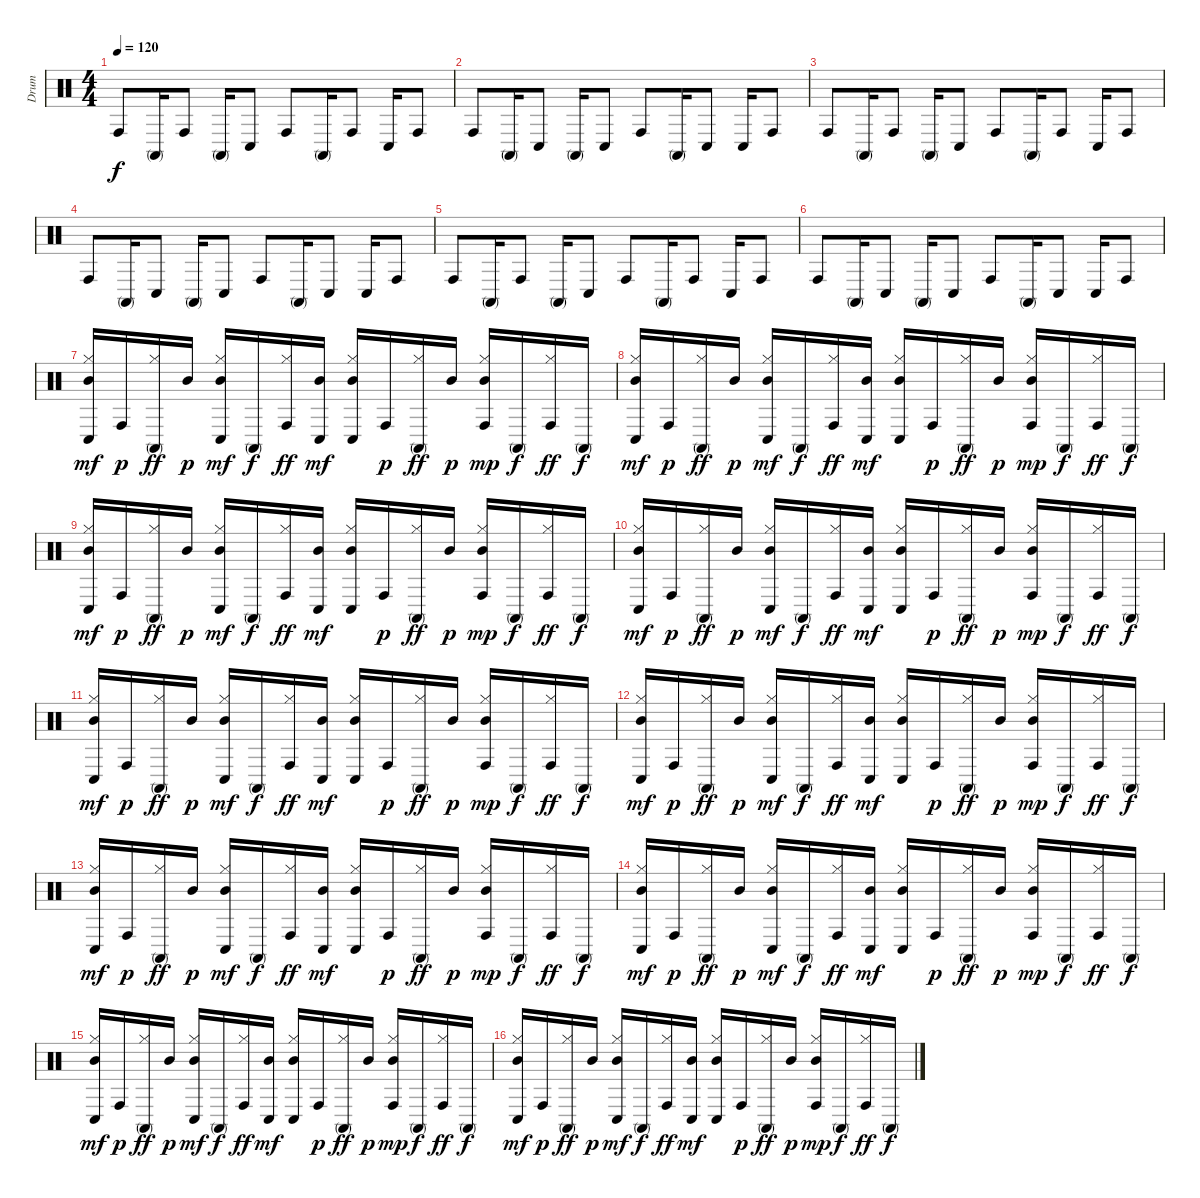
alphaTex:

\track ("Drum" "Drum") {instrument percussion}
\staff {score}
\articulation defaults
\ts (4 4)
\tempo 120
\clef neutral
\ks c "Conga high (hit)".8{dy f} "Conga high (mute)".16 "Conga high (hit)".8 "Conga high (mute)".16 "Conga low (hit)".8 "Conga high (hit)".8 "Conga high (mute)".16 "Conga high (hit)".8 "Conga low (hit)".16 "Conga high (hit)".8
|
"Conga high (hit)".8 "Conga high (mute)".16 "Conga low (hit)".8 "Conga high (mute)".16 "Conga low (hit)".8 "Conga high (hit)".8 "Conga high (mute)".16 "Conga low (hit)".8 "Conga low (hit)".16 "Conga high (hit)".8 |
"Conga high (hit)".8 "Conga high (mute)".16 "Conga high (hit)".8 "Conga high (mute)".16 "Conga low (hit)".8 "Conga high (hit)".8 "Conga high (mute)".16 "Conga high (hit)".8 "Conga low (hit)".16 "Conga high (hit)".8 |
"Conga high (hit)".8 "Conga high (mute)".16 "Conga low (hit)".8 "Conga high (mute)".16 "Conga low (hit)".8 "Conga high (hit)".8 "Conga high (mute)".16 "Conga low (hit)".8 "Conga low (hit)".16 "Conga high (hit)".8 |
"Conga high (hit)".8 "Conga high (mute)".16 "Conga high (hit)".8 "Conga high (mute)".16 "Conga low (hit)".8 "Conga high (hit)".8 "Conga high (mute)".16 "Conga high (hit)".8 "Conga low (hit)".16 "Conga high (hit)".8 |
"Conga high (hit)".8 "Conga high (mute)".16 "Conga low (hit)".8 "Conga high (mute)".16 "Conga low (hit)".8 "Conga high (hit)".8 "Conga high (mute)".16 "Conga low (hit)".8 "Conga low (hit)".16 "Conga high (hit)".8 |
("Mid Tom (hit)" "Hi-Hat (closed)" "Conga low (hit)").16{dy mf} "Conga high (hit)".16{dy p} ("Hi-Hat (closed)" "Conga high (mute)").16{dy ff} "Mid Tom (hit)".16{dy p} ("Mid Tom (hit)" "Hi-Hat (closed)" "Conga low (hit)").16{dy mf} "Conga high (mute)".16{dy f} ("Conga high (hit)" "Hi-Hat (closed)").16{dy ff} ("Mid Tom (hit)" "Conga low (hit)").16{dy mf} ("Mid Tom (hit)" "Hi-Hat (closed)" "Conga low (hit)").16 "Conga high (hit)".16{dy p} ("Hi-Hat (closed)" "Conga high (mute)").16{dy ff} "Mid Tom (hit)".16{dy p} ("Mid Tom (hit)" "Hi-Hat (closed)" "Conga high (hit)").16{dy mp} "Conga high (mute)".16{dy f} ("Conga high (hit)" "Hi-Hat (closed)").16{dy ff} "Conga high (mute)".16{dy f} |
("Mid Tom (hit)" "Hi-Hat (closed)" "Conga low (hit)").16{dy mf} "Conga high (hit)".16{dy p} ("Hi-Hat (closed)" "Conga high (mute)").16{dy ff} "Mid Tom (hit)".16{dy p} ("Mid Tom (hit)" "Hi-Hat (closed)" "Conga low (hit)").16{dy mf} "Conga high (mute)".16{dy f} ("Conga high (hit)" "Hi-Hat (closed)").16{dy ff} ("Mid Tom (hit)" "Conga low (hit)").16{dy mf} ("Mid Tom (hit)" "Hi-Hat (closed)" "Conga low (hit)").16 "Conga high (hit)".16{dy p} ("Hi-Hat (closed)" "Conga high (mute)").16{dy ff} "Mid Tom (hit)".16{dy p} ("Mid Tom (hit)" "Hi-Hat (closed)" "Conga high (hit)").16{dy mp} "Conga high (mute)".16{dy f} ("Conga high (hit)" "Hi-Hat (closed)").16{dy ff} "Conga high (mute)".16{dy f} |
("Mid Tom (hit)" "Hi-Hat (closed)" "Conga low (hit)").16{dy mf} "Conga high (hit)".16{dy p} ("Hi-Hat (closed)" "Conga high (mute)").16{dy ff} "Mid Tom (hit)".16{dy p} ("Mid Tom (hit)" "Hi-Hat (closed)" "Conga low (hit)").16{dy mf} "Conga high (mute)".16{dy f} ("Conga high (hit)" "Hi-Hat (closed)").16{dy ff} ("Mid Tom (hit)" "Conga low (hit)").16{dy mf} ("Mid Tom (hit)" "Hi-Hat (closed)" "Conga low (hit)").16 "Conga high (hit)".16{dy p} ("Hi-Hat (closed)" "Conga high (mute)").16{dy ff} "Mid Tom (hit)".16{dy p} ("Mid Tom (hit)" "Hi-Hat (closed)" "Conga high (hit)").16{dy mp} "Conga high (mute)".16{dy f} ("Conga high (hit)" "Hi-Hat (closed)").16{dy ff} "Conga high (mute)".16{dy f} |
("Mid Tom (hit)" "Hi-Hat (closed)" "Conga low (hit)").16{dy mf} "Conga high (hit)".16{dy p} ("Hi-Hat (closed)" "Conga high (mute)").16{dy ff} "Mid Tom (hit)".16{dy p} ("Mid Tom (hit)" "Hi-Hat (closed)" "Conga low (hit)").16{dy mf} "Conga high (mute)".16{dy f} ("Conga high (hit)" "Hi-Hat (closed)").16{dy ff} ("Mid Tom (hit)" "Conga low (hit)").16{dy mf} ("Mid Tom (hit)" "Hi-Hat (closed)" "Conga low (hit)").16 "Conga high (hit)".16{dy p} ("Hi-Hat (closed)" "Conga high (mute)").16{dy ff} "Mid Tom (hit)".16{dy p} ("Mid Tom (hit)" "Hi-Hat (closed)" "Conga high (hit)").16{dy mp} "Conga high (mute)".16{dy f} ("Conga high (hit)" "Hi-Hat (closed)").16{dy ff} "Conga high (mute)".16{dy f} |
("Mid Tom (hit)" "Hi-Hat (closed)" "Conga low (hit)").16{dy mf} "Conga high (hit)".16{dy p} ("Hi-Hat (closed)" "Conga high (mute)").16{dy ff} "Mid Tom (hit)".16{dy p} ("Mid Tom (hit)" "Hi-Hat (closed)" "Conga low (hit)").16{dy mf} "Conga high (mute)".16{dy f} ("Conga high (hit)" "Hi-Hat (closed)").16{dy ff} ("Mid Tom (hit)" "Conga low (hit)").16{dy mf} ("Mid Tom (hit)" "Hi-Hat (closed)" "Conga low (hit)").16 "Conga high (hit)".16{dy p} ("Hi-Hat (closed)" "Conga high (mute)").16{dy ff} "Mid Tom (hit)".16{dy p} ("Mid Tom (hit)" "Hi-Hat (closed)" "Conga high (hit)").16{dy mp} "Conga high (mute)".16{dy f} ("Conga high (hit)" "Hi-Hat (closed)").16{dy ff} "Conga high (mute)".16{dy f} |
("Mid Tom (hit)" "Hi-Hat (closed)" "Conga low (hit)").16{dy mf} "Conga high (hit)".16{dy p} ("Hi-Hat (closed)" "Conga high (mute)").16{dy ff} "Mid Tom (hit)".16{dy p} ("Mid Tom (hit)" "Hi-Hat (closed)" "Conga low (hit)").16{dy mf} "Conga high (mute)".16{dy f} ("Conga high (hit)" "Hi-Hat (closed)").16{dy ff} ("Mid Tom (hit)" "Conga low (hit)").16{dy mf} ("Mid Tom (hit)" "Hi-Hat (closed)" "Conga low (hit)").16 "Conga high (hit)".16{dy p} ("Hi-Hat (closed)" "Conga high (mute)").16{dy ff} "Mid Tom (hit)".16{dy p} ("Mid Tom (hit)" "Hi-Hat (closed)" "Conga high (hit)").16{dy mp} "Conga high (mute)".16{dy f} ("Conga high (hit)" "Hi-Hat (closed)").16{dy ff} "Conga high (mute)".16{dy f} |
("Mid Tom (hit)" "Hi-Hat (closed)" "Conga low (hit)").16{dy mf} "Conga high (hit)".16{dy p} ("Hi-Hat (closed)" "Conga high (mute)").16{dy ff} "Mid Tom (hit)".16{dy p} ("Mid Tom (hit)" "Hi-Hat (closed)" "Conga low (hit)").16{dy mf} "Conga high (mute)".16{dy f} ("Conga high (hit)" "Hi-Hat (closed)").16{dy ff} ("Mid Tom (hit)" "Conga low (hit)").16{dy mf} ("Mid Tom (hit)" "Hi-Hat (closed)" "Conga low (hit)").16 "Conga high (hit)".16{dy p} ("Hi-Hat (closed)" "Conga high (mute)").16{dy ff} "Mid Tom (hit)".16{dy p} ("Mid Tom (hit)" "Hi-Hat (closed)" "Conga high (hit)").16{dy mp} "Conga high (mute)".16{dy f} ("Conga high (hit)" "Hi-Hat (closed)").16{dy ff} "Conga high (mute)".16{dy f} |
("Mid Tom (hit)" "Hi-Hat (closed)" "Conga low (hit)").16{dy mf} "Conga high (hit)".16{dy p} ("Hi-Hat (closed)" "Conga high (mute)").16{dy ff} "Mid Tom (hit)".16{dy p} ("Mid Tom (hit)" "Hi-Hat (closed)" "Conga low (hit)").16{dy mf} "Conga high (mute)".16{dy f} ("Conga high (hit)" "Hi-Hat (closed)").16{dy ff} ("Mid Tom (hit)" "Conga low (hit)").16{dy mf} ("Mid Tom (hit)" "Hi-Hat (closed)" "Conga low (hit)").16 "Conga high (hit)".16{dy p} ("Hi-Hat (closed)" "Conga high (mute)").16{dy ff} "Mid Tom (hit)".16{dy p} ("Mid Tom (hit)" "Hi-Hat (closed)" "Conga high (hit)").16{dy mp} "Conga high (mute)".16{dy f} ("Conga high (hit)" "Hi-Hat (closed)").16{dy ff} "Conga high (mute)".16{dy f} |
("Mid Tom (hit)" "Hi-Hat (closed)" "Conga low (hit)").16{dy mf} "Conga high (hit)".16{dy p} ("Hi-Hat (closed)" "Conga high (mute)").16{dy ff} "Mid Tom (hit)".16{dy p} ("Mid Tom (hit)" "Hi-Hat (closed)" "Conga low (hit)").16{dy mf} "Conga high (mute)".16{dy f} ("Conga high (hit)" "Hi-Hat (closed)").16{dy ff} ("Mid Tom (hit)" "Conga low (hit)").16{dy mf} ("Mid Tom (hit)" "Hi-Hat (closed)" "Conga low (hit)").16 "Conga high (hit)".16{dy p} ("Hi-Hat (closed)" "Conga high (mute)").16{dy ff} "Mid Tom (hit)".16{dy p} ("Mid Tom (hit)" "Hi-Hat (closed)" "Conga high (hit)").16{dy mp} "Conga high (mute)".16{dy f} ("Conga high (hit)" "Hi-Hat (closed)").16{dy ff} "Conga high (mute)".16{dy f} |
("Mid Tom (hit)" "Hi-Hat (closed)" "Conga low (hit)").16{dy mf} "Conga high (hit)".16{dy p} ("Hi-Hat (closed)" "Conga high (mute)").16{dy ff} "Mid Tom (hit)".16{dy p} ("Mid Tom (hit)" "Hi-Hat (closed)" "Conga low (hit)").16{dy mf} "Conga high (mute)".16{dy f} ("Conga high (hit)" "Hi-Hat (closed)").16{dy ff} ("Mid Tom (hit)" "Conga low (hit)").16{dy mf} ("Mid Tom (hit)" "Hi-Hat (closed)" "Conga low (hit)").16 "Conga high (hit)".16{dy p} ("Hi-Hat (closed)" "Conga high (mute)").16{dy ff} "Mid Tom (hit)".16{dy p} ("Mid Tom (hit)" "Hi-Hat (closed)" "Conga high (hit)").16{dy mp} "Conga high (mute)".16{dy f} ("Conga high (hit)" "Hi-Hat (closed)").16{dy ff} "Conga high (mute)".16{dy f}
